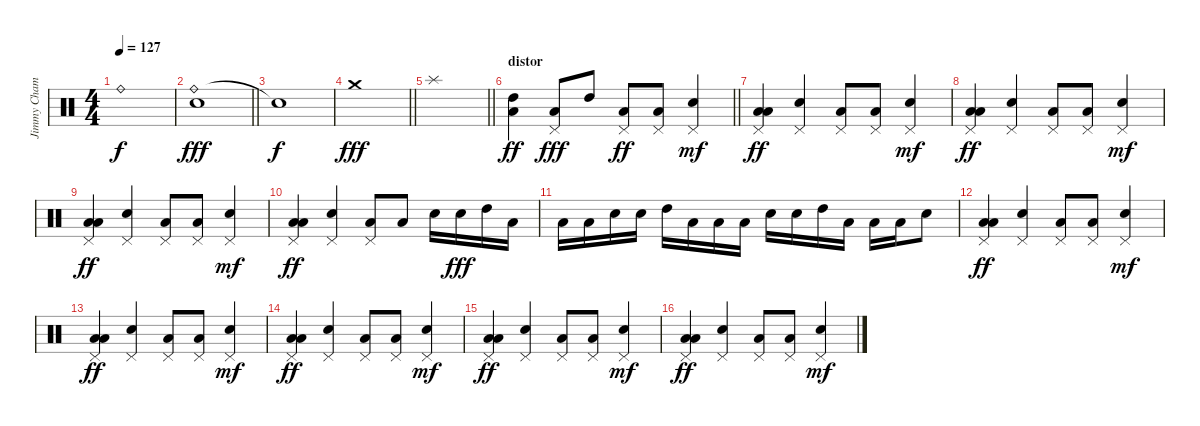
\track ("Jimmy Chamberlin" "Jimmy Cham") {instrument percussion}
\staff {score}
\articulation defaults
\ts (4 4)
\tempo 127
\clef neutral
\ks c "Ride (bell)"{t}.1{dy f}
|
\barLineRight lightlight
("Ride (bell)" "Snare (hit)").1{dy fff} |
"Snare (hit)"{t}.1{dy f} |
\barLineRight lightlight "Crash medium (hit)".1{dy fff}
|
\barLineRight lightlight "Splash (hit)".1
|
\section ("" "distor")
\barLineRight lightlight
("High Tom (hit)" "Low Tom (hit)").4{dy ff} ("Low Floor Tom (hit)" "Pedal Hi-Hat (hit)").8{dy fff} "High Tom (hit)".8 ("Low Tom (hit)" "Pedal Hi-Hat (hit)").8{dy ff} ("Low Tom (hit)" "Pedal Hi-Hat (hit)").8 ("Snare (hit) 2" "Pedal Hi-Hat (hit)").4{dy mf} |
("Low Floor Tom (hit)" "Low Tom (hit)" "Pedal Hi-Hat (hit)").4{dy ff} ("Snare (hit) 2" "Pedal Hi-Hat (hit)").4 ("Low Floor Tom (hit)" "Pedal Hi-Hat (hit)").8 ("Low Floor Tom (hit)" "Pedal Hi-Hat (hit)").8 ("Snare (hit) 2" "Pedal Hi-Hat (hit)").4{dy mf} |
("Low Floor Tom (hit)" "Low Tom (hit)" "Pedal Hi-Hat (hit)").4{dy ff} ("Snare (hit) 2" "Pedal Hi-Hat (hit)").4 ("Low Floor Tom (hit)" "Pedal Hi-Hat (hit)").8 ("Low Floor Tom (hit)" "Pedal Hi-Hat (hit)").8 ("Snare (hit) 2" "Pedal Hi-Hat (hit)").4{dy mf} |
("Low Floor Tom (hit)" "Low Tom (hit)" "Pedal Hi-Hat (hit)").4{dy ff} ("Snare (hit) 2" "Pedal Hi-Hat (hit)").4 ("Low Floor Tom (hit)" "Pedal Hi-Hat (hit)").8 ("Low Floor Tom (hit)" "Pedal Hi-Hat (hit)").8 ("Snare (hit) 2" "Pedal Hi-Hat (hit)").4{dy mf} |
("Low Floor Tom (hit)" "Low Tom (hit)" "Pedal Hi-Hat (hit)").4{dy ff} ("Snare (hit) 2" "Pedal Hi-Hat (hit)").4 ("Low Floor Tom (hit)" "Pedal Hi-Hat (hit)").8 "Low Floor Tom (hit)".8 "Snare (hit) 2".16 "Snare (hit) 2".16{dy fff} "High Tom (hit)".16 "Low Tom (hit)".16 |
"Low Floor Tom (hit)".16 "Low Tom (hit)".16 "Snare (hit) 2".16 "Snare (hit) 2".16 "High Tom (hit)".16 "Low Tom (hit)".16 "Low Floor Tom (hit)".16 "Low Tom (hit)".16 "Snare (hit) 2".16 "Snare (hit) 2".16 "High Tom (hit)".16 "Low Tom (hit)".16 "Low Floor Tom (hit)".16 "Low Tom (hit)".16 "Snare (hit) 2".8 |
("Low Floor Tom (hit)" "Low Tom (hit)" "Pedal Hi-Hat (hit)").4{dy ff} ("Snare (hit) 2" "Pedal Hi-Hat (hit)").4 ("Low Floor Tom (hit)" "Pedal Hi-Hat (hit)").8 ("Low Floor Tom (hit)" "Pedal Hi-Hat (hit)").8 ("Snare (hit) 2" "Pedal Hi-Hat (hit)").4{dy mf} |
("Low Floor Tom (hit)" "Low Tom (hit)" "Pedal Hi-Hat (hit)").4{dy ff} ("Snare (hit) 2" "Pedal Hi-Hat (hit)").4 ("Low Floor Tom (hit)" "Pedal Hi-Hat (hit)").8 ("Low Floor Tom (hit)" "Pedal Hi-Hat (hit)").8 ("Snare (hit) 2" "Pedal Hi-Hat (hit)").4{dy mf} |
("Low Floor Tom (hit)" "Low Tom (hit)" "Pedal Hi-Hat (hit)").4{dy ff} ("Snare (hit) 2" "Pedal Hi-Hat (hit)").4 ("Low Floor Tom (hit)" "Pedal Hi-Hat (hit)").8 ("Low Floor Tom (hit)" "Pedal Hi-Hat (hit)").8 ("Snare (hit) 2" "Pedal Hi-Hat (hit)").4{dy mf} |
("Low Floor Tom (hit)" "Low Tom (hit)" "Pedal Hi-Hat (hit)").4{dy ff} ("Snare (hit) 2" "Pedal Hi-Hat (hit)").4 ("Low Floor Tom (hit)" "Pedal Hi-Hat (hit)").8 ("Low Floor Tom (hit)" "Pedal Hi-Hat (hit)").8 ("Snare (hit) 2" "Pedal Hi-Hat (hit)").4{dy mf} |
("Low Floor Tom (hit)" "Low Tom (hit)" "Pedal Hi-Hat (hit)").4{dy ff} ("Snare (hit) 2" "Pedal Hi-Hat (hit)").4 ("Low Floor Tom (hit)" "Pedal Hi-Hat (hit)").8 ("Low Floor Tom (hit)" "Pedal Hi-Hat (hit)").8 ("Snare (hit) 2" "Pedal Hi-Hat (hit)").4{dy mf}
